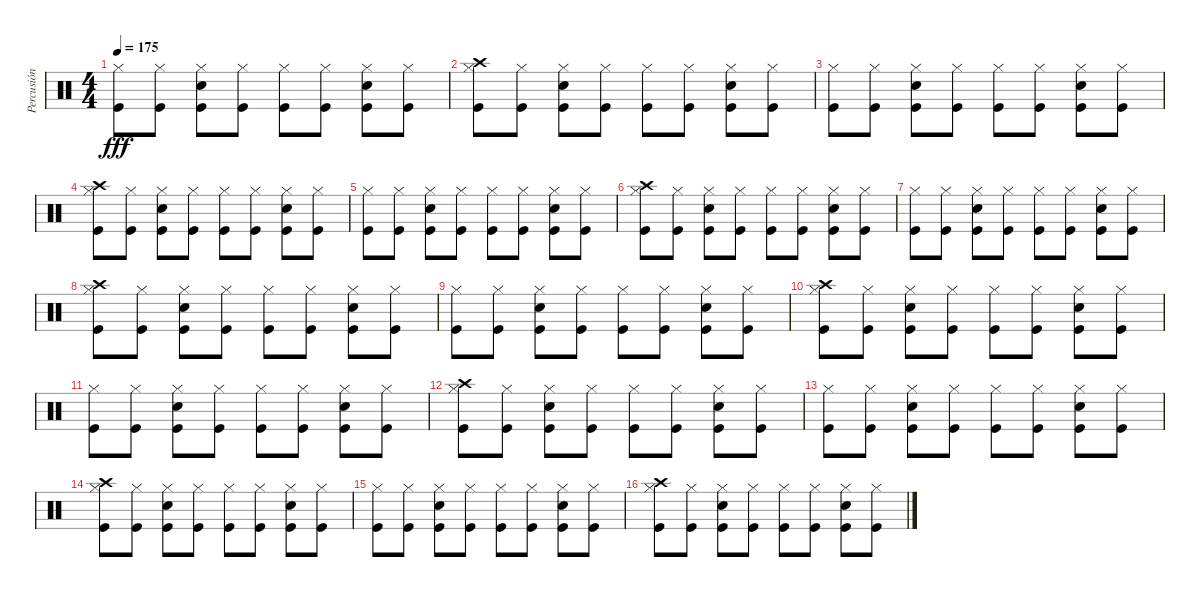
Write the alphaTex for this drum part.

\track ("Percusión" "Percusión") {instrument percussion}
\staff {score}
\articulation defaults
\ts (4 4)
\tempo 175
\clef neutral
\ks c
("Kick (hit)" "Hi-Hat (closed)").8{dy fff} ("Kick (hit)" "Hi-Hat (closed)").8 ("Snare (hit) 2" "Kick (hit)" "Hi-Hat (closed)").8 ("Kick (hit)" "Hi-Hat (closed)").8 ("Kick (hit)" "Hi-Hat (closed)").8 ("Kick (hit)" "Hi-Hat (closed)").8 ("Snare (hit) 2" "Kick (hit)" "Hi-Hat (closed)").8 ("Kick (hit)" "Hi-Hat (closed)").8 |
("Kick (hit)" "Crash high (hit)" "Hi-Hat (closed)").8 ("Kick (hit)" "Hi-Hat (closed)").8 ("Kick (hit)" "Snare (hit) 2" "Hi-Hat (closed)").8 ("Hi-Hat (closed)" "Kick (hit)").8 ("Kick (hit)" "Hi-Hat (closed)").8 ("Kick (hit)" "Hi-Hat (closed)").8 ("Snare (hit) 2" "Kick (hit)" "Hi-Hat (closed)").8 ("Kick (hit)" "Hi-Hat (closed)").8 |
("Kick (hit)" "Hi-Hat (closed)").8 ("Kick (hit)" "Hi-Hat (closed)").8 ("Snare (hit) 2" "Kick (hit)" "Hi-Hat (closed)").8 ("Kick (hit)" "Hi-Hat (closed)").8 ("Kick (hit)" "Hi-Hat (closed)").8 ("Kick (hit)" "Hi-Hat (closed)").8 ("Snare (hit) 2" "Kick (hit)" "Hi-Hat (closed)").8 ("Kick (hit)" "Hi-Hat (closed)").8 |
("Kick (hit)" "Crash high (hit)" "Hi-Hat (closed)").8 ("Kick (hit)" "Hi-Hat (closed)").8 ("Kick (hit)" "Snare (hit) 2" "Hi-Hat (closed)").8 ("Hi-Hat (closed)" "Kick (hit)").8 ("Kick (hit)" "Hi-Hat (closed)").8 ("Kick (hit)" "Hi-Hat (closed)").8 ("Snare (hit) 2" "Kick (hit)" "Hi-Hat (closed)").8 ("Kick (hit)" "Hi-Hat (closed)").8 |
("Kick (hit)" "Hi-Hat (closed)").8 ("Kick (hit)" "Hi-Hat (closed)").8 ("Snare (hit) 2" "Kick (hit)" "Hi-Hat (closed)").8 ("Kick (hit)" "Hi-Hat (closed)").8 ("Kick (hit)" "Hi-Hat (closed)").8 ("Kick (hit)" "Hi-Hat (closed)").8 ("Snare (hit) 2" "Kick (hit)" "Hi-Hat (closed)").8 ("Kick (hit)" "Hi-Hat (closed)").8 |
("Kick (hit)" "Crash high (hit)" "Hi-Hat (closed)").8 ("Kick (hit)" "Hi-Hat (closed)").8 ("Kick (hit)" "Snare (hit) 2" "Hi-Hat (closed)").8 ("Hi-Hat (closed)" "Kick (hit)").8 ("Kick (hit)" "Hi-Hat (closed)").8 ("Kick (hit)" "Hi-Hat (closed)").8 ("Snare (hit) 2" "Kick (hit)" "Hi-Hat (closed)").8 ("Kick (hit)" "Hi-Hat (closed)").8 |
("Kick (hit)" "Hi-Hat (closed)").8 ("Kick (hit)" "Hi-Hat (closed)").8 ("Snare (hit) 2" "Kick (hit)" "Hi-Hat (closed)").8 ("Kick (hit)" "Hi-Hat (closed)").8 ("Kick (hit)" "Hi-Hat (closed)").8 ("Kick (hit)" "Hi-Hat (closed)").8 ("Snare (hit) 2" "Kick (hit)" "Hi-Hat (closed)").8 ("Kick (hit)" "Hi-Hat (closed)").8 |
("Kick (hit)" "Crash high (hit)" "Hi-Hat (closed)").8 ("Kick (hit)" "Hi-Hat (closed)").8 ("Kick (hit)" "Snare (hit) 2" "Hi-Hat (closed)").8 ("Hi-Hat (closed)" "Kick (hit)").8 ("Kick (hit)" "Hi-Hat (closed)").8 ("Kick (hit)" "Hi-Hat (closed)").8 ("Snare (hit) 2" "Kick (hit)" "Hi-Hat (closed)").8 ("Kick (hit)" "Hi-Hat (closed)").8 |
("Kick (hit)" "Hi-Hat (closed)").8 ("Kick (hit)" "Hi-Hat (closed)").8 ("Snare (hit) 2" "Kick (hit)" "Hi-Hat (closed)").8 ("Kick (hit)" "Hi-Hat (closed)").8 ("Kick (hit)" "Hi-Hat (closed)").8 ("Kick (hit)" "Hi-Hat (closed)").8 ("Snare (hit) 2" "Kick (hit)" "Hi-Hat (closed)").8 ("Kick (hit)" "Hi-Hat (closed)").8 |
("Kick (hit)" "Crash high (hit)" "Hi-Hat (closed)").8 ("Kick (hit)" "Hi-Hat (closed)").8 ("Kick (hit)" "Snare (hit) 2" "Hi-Hat (closed)").8 ("Hi-Hat (closed)" "Kick (hit)").8 ("Kick (hit)" "Hi-Hat (closed)").8 ("Kick (hit)" "Hi-Hat (closed)").8 ("Snare (hit) 2" "Kick (hit)" "Hi-Hat (closed)").8 ("Kick (hit)" "Hi-Hat (closed)").8 |
("Kick (hit)" "Hi-Hat (closed)").8 ("Kick (hit)" "Hi-Hat (closed)").8 ("Snare (hit) 2" "Kick (hit)" "Hi-Hat (closed)").8 ("Kick (hit)" "Hi-Hat (closed)").8 ("Kick (hit)" "Hi-Hat (closed)").8 ("Kick (hit)" "Hi-Hat (closed)").8 ("Snare (hit) 2" "Kick (hit)" "Hi-Hat (closed)").8 ("Kick (hit)" "Hi-Hat (closed)").8 |
("Kick (hit)" "Crash high (hit)" "Hi-Hat (closed)").8 ("Kick (hit)" "Hi-Hat (closed)").8 ("Kick (hit)" "Snare (hit) 2" "Hi-Hat (closed)").8 ("Hi-Hat (closed)" "Kick (hit)").8 ("Kick (hit)" "Hi-Hat (closed)").8 ("Kick (hit)" "Hi-Hat (closed)").8 ("Snare (hit) 2" "Kick (hit)" "Hi-Hat (closed)").8 ("Kick (hit)" "Hi-Hat (closed)").8 |
("Kick (hit)" "Hi-Hat (closed)").8 ("Kick (hit)" "Hi-Hat (closed)").8 ("Snare (hit) 2" "Kick (hit)" "Hi-Hat (closed)").8 ("Kick (hit)" "Hi-Hat (closed)").8 ("Kick (hit)" "Hi-Hat (closed)").8 ("Kick (hit)" "Hi-Hat (closed)").8 ("Snare (hit) 2" "Kick (hit)" "Hi-Hat (closed)").8 ("Kick (hit)" "Hi-Hat (closed)").8 |
("Kick (hit)" "Crash high (hit)" "Hi-Hat (closed)").8 ("Kick (hit)" "Hi-Hat (closed)").8 ("Kick (hit)" "Snare (hit) 2" "Hi-Hat (closed)").8 ("Hi-Hat (closed)" "Kick (hit)").8 ("Kick (hit)" "Hi-Hat (closed)").8 ("Kick (hit)" "Hi-Hat (closed)").8 ("Snare (hit) 2" "Kick (hit)" "Hi-Hat (closed)").8 ("Kick (hit)" "Hi-Hat (closed)").8 |
("Kick (hit)" "Hi-Hat (closed)").8 ("Kick (hit)" "Hi-Hat (closed)").8 ("Snare (hit) 2" "Kick (hit)" "Hi-Hat (closed)").8 ("Kick (hit)" "Hi-Hat (closed)").8 ("Kick (hit)" "Hi-Hat (closed)").8 ("Kick (hit)" "Hi-Hat (closed)").8 ("Snare (hit) 2" "Kick (hit)" "Hi-Hat (closed)").8 ("Kick (hit)" "Hi-Hat (closed)").8 |
("Kick (hit)" "Crash high (hit)" "Hi-Hat (closed)").8 ("Kick (hit)" "Hi-Hat (closed)").8 ("Kick (hit)" "Snare (hit) 2" "Hi-Hat (closed)").8 ("Hi-Hat (closed)" "Kick (hit)").8 ("Kick (hit)" "Hi-Hat (closed)").8 ("Kick (hit)" "Hi-Hat (closed)").8 ("Snare (hit) 2" "Kick (hit)" "Hi-Hat (closed)").8 ("Kick (hit)" "Hi-Hat (closed)").8
